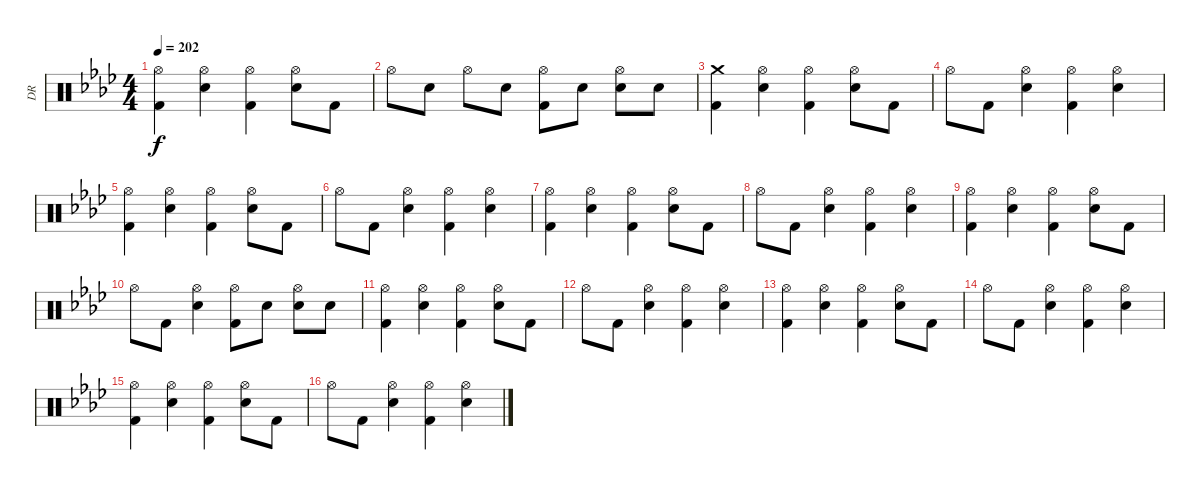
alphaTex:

\track ("DR" "DR") {instrument percussion}
\staff {score}
\articulation defaults
\ts (4 4)
\tempo 202
\clef neutral
\ks ab
("Hi-Hat (open)" "Kick (hit) 2").4{dy f} ("Hi-Hat (open)" "Electric Snare (hit)").4 ("Hi-Hat (open)" "Kick (hit) 2").4 ("Hi-Hat (open)" "Electric Snare (hit)").8 "Kick (hit) 2".8 |
"Hi-Hat (open)".8 "Electric Snare (hit)".8 "Hi-Hat (open)".8 "Electric Snare (hit)".8 ("Hi-Hat (open)" "Kick (hit) 2").8 "Electric Snare (hit)".8 ("Hi-Hat (open)" "Electric Snare (hit)").8 "Electric Snare (hit)".8 |
("Crash medium (hit)" "Kick (hit) 2").4 ("Hi-Hat (open)" "Electric Snare (hit)").4 ("Hi-Hat (open)" "Kick (hit) 2").4 ("Hi-Hat (open)" "Electric Snare (hit)").8 "Kick (hit) 2".8 |
"Hi-Hat (open)".8 "Kick (hit) 2".8 ("Hi-Hat (open)" "Electric Snare (hit)").4 ("Hi-Hat (open)" "Kick (hit) 2").4 ("Hi-Hat (open)" "Electric Snare (hit)").4 |
("Hi-Hat (open)" "Kick (hit) 2").4 ("Hi-Hat (open)" "Electric Snare (hit)").4 ("Hi-Hat (open)" "Kick (hit) 2").4 ("Hi-Hat (open)" "Electric Snare (hit)").8 "Kick (hit) 2".8 |
"Hi-Hat (open)".8 "Kick (hit) 2".8 ("Hi-Hat (open)" "Electric Snare (hit)").4 ("Hi-Hat (open)" "Kick (hit) 2").4 ("Hi-Hat (open)" "Electric Snare (hit)").4 |
("Hi-Hat (open)" "Kick (hit) 2").4 ("Hi-Hat (open)" "Electric Snare (hit)").4 ("Hi-Hat (open)" "Kick (hit) 2").4 ("Hi-Hat (open)" "Electric Snare (hit)").8 "Kick (hit) 2".8 |
"Hi-Hat (open)".8 "Kick (hit) 2".8 ("Hi-Hat (open)" "Electric Snare (hit)").4 ("Hi-Hat (open)" "Kick (hit) 2").4 ("Hi-Hat (open)" "Electric Snare (hit)").4 |
("Hi-Hat (open)" "Kick (hit) 2").4 ("Hi-Hat (open)" "Electric Snare (hit)").4 ("Hi-Hat (open)" "Kick (hit) 2").4 ("Hi-Hat (open)" "Electric Snare (hit)").8 "Kick (hit) 2".8 |
"Hi-Hat (open)".8 "Kick (hit) 2".8 ("Hi-Hat (open)" "Electric Snare (hit)").4 ("Hi-Hat (open)" "Kick (hit) 2").8 "Electric Snare (hit)".8 ("Hi-Hat (open)" "Electric Snare (hit)").8 "Electric Snare (hit)".8 |
("Hi-Hat (open)" "Kick (hit) 2").4 ("Hi-Hat (open)" "Electric Snare (hit)").4 ("Hi-Hat (open)" "Kick (hit) 2").4 ("Hi-Hat (open)" "Electric Snare (hit)").8 "Kick (hit) 2".8 |
"Hi-Hat (open)".8 "Kick (hit) 2".8 ("Hi-Hat (open)" "Electric Snare (hit)").4 ("Hi-Hat (open)" "Kick (hit) 2").4 ("Hi-Hat (open)" "Electric Snare (hit)").4 |
("Hi-Hat (open)" "Kick (hit) 2").4 ("Hi-Hat (open)" "Electric Snare (hit)").4 ("Hi-Hat (open)" "Kick (hit) 2").4 ("Hi-Hat (open)" "Electric Snare (hit)").8 "Kick (hit) 2".8 |
"Hi-Hat (open)".8 "Kick (hit) 2".8 ("Hi-Hat (open)" "Electric Snare (hit)").4 ("Hi-Hat (open)" "Kick (hit) 2").4 ("Hi-Hat (open)" "Electric Snare (hit)").4 |
("Hi-Hat (open)" "Kick (hit) 2").4 ("Hi-Hat (open)" "Electric Snare (hit)").4 ("Hi-Hat (open)" "Kick (hit) 2").4 ("Hi-Hat (open)" "Electric Snare (hit)").8 "Kick (hit) 2".8 |
"Hi-Hat (open)".8 "Kick (hit) 2".8 ("Hi-Hat (open)" "Electric Snare (hit)").4 ("Hi-Hat (open)" "Kick (hit) 2").4 ("Hi-Hat (open)" "Electric Snare (hit)").4
